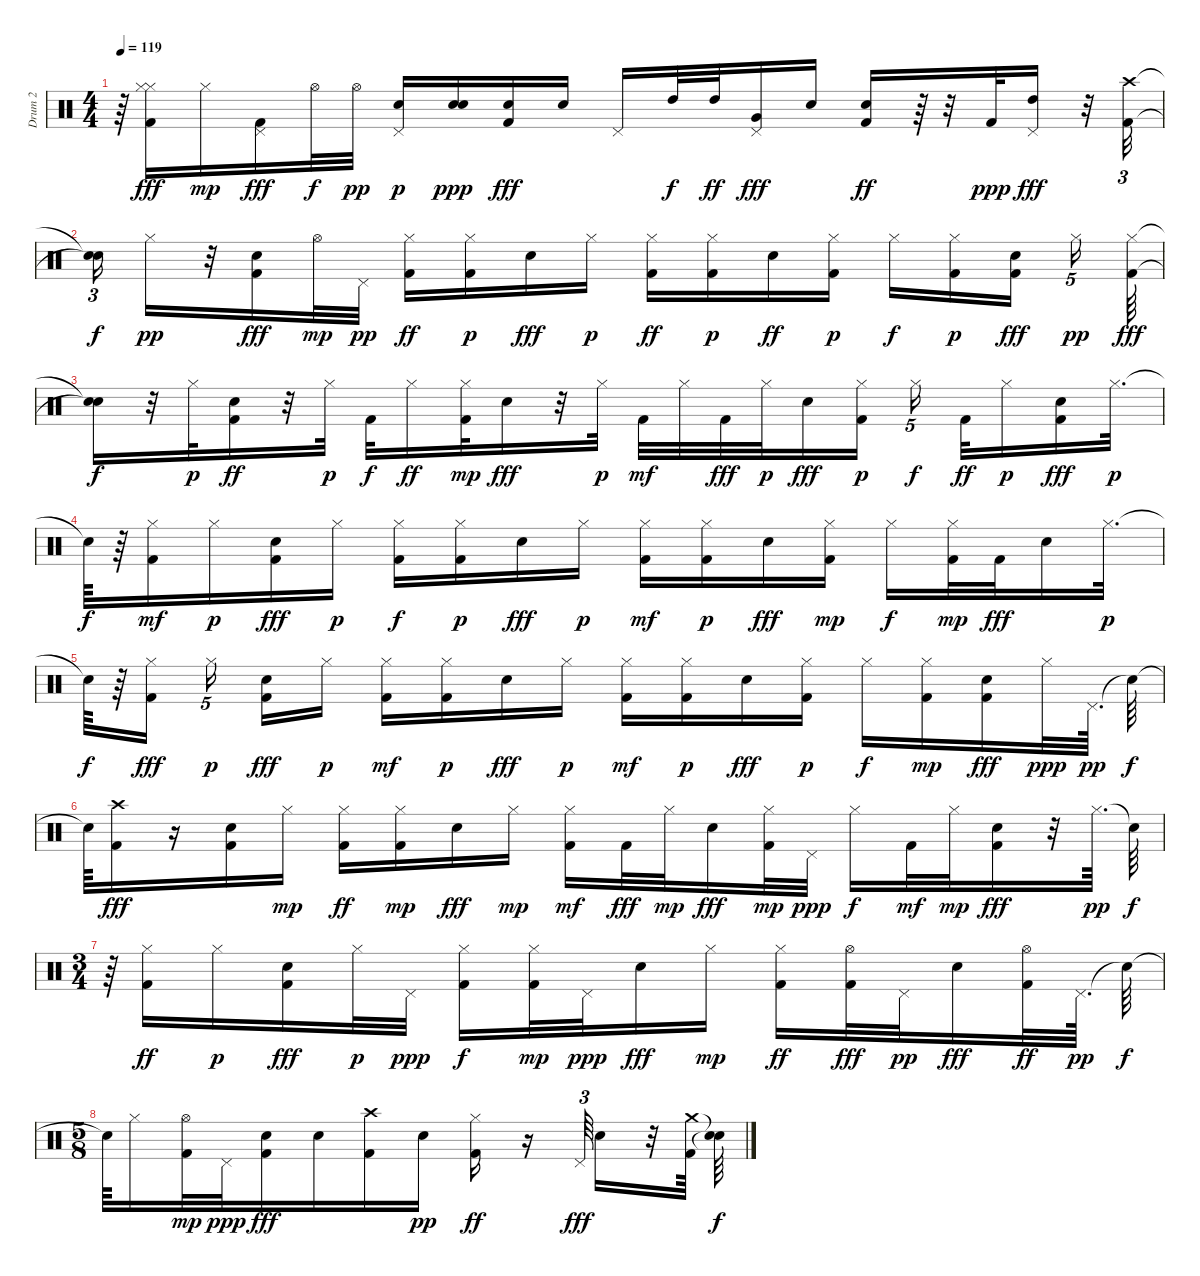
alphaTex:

\track ("Drum 2                          " "Drum 2    ") {instrument percussion}
\staff {score}
\articulation defaults
\ts (4 4)
\tempo 119
\clef neutral
\ks c
r.64{dy ff} ("Hi-Hat (closed)" "Hi-Hat (closed)" "Kick (hit) 2").16{dy fff} "Hi-Hat (closed)".16{dy mp} ("Pedal Hi-Hat (hit)" "Kick (hit) 2").16{dy fff} "Hi-Hat (open)".32{dy f} "Hi-Hat (open)".32{dy pp} ("Pedal Hi-Hat (hit)" "Snare (hit) 2").16{dy p} ("Snare (hit) 2" "Electric Snare (hit)").16{dy ppp} ("Kick (hit) 2" "Snare (hit) 2").16{dy fff} "Snare (hit) 2".16 "Pedal Hi-Hat (hit)".16 "High Tom (hit)".32{dy f} "High Tom (hit)".32{dy ff} ("Pedal Hi-Hat (hit)" "Very Low Tom (hit)").16{dy fff} "Electric Snare (hit)".16 ("Kick (hit) 2" "Electric Snare (hit)").16{dy ff} r.64 r.32 "Kick (hit) 2".32{dy ppp} ("Pedal Hi-Hat (hit)" "High Tom (hit)").16{dy fff} r.32 ("Kick (hit) 2" "Crash high (hit)").32{tu (3 2)} |
("Snare (hit)"{t} "Snare (hit)"{t}).16{tu (3 2) dy f} "Hi-Hat (closed)".16{dy pp} r.32 ("Snare (hit) 2" "Kick (hit) 2").16{dy fff} "Hi-Hat (open)".32{dy mp} "Pedal Hi-Hat (hit)".32{dy pp} ("Kick (hit) 2" "Hi-Hat (closed)").16{dy ff} ("Kick (hit) 2" "Hi-Hat (closed)").16{dy p} "Snare (hit) 2".16{dy fff} "Hi-Hat (closed)".16{dy p} ("Kick (hit) 2" "Hi-Hat (closed)").16{dy ff} ("Kick (hit) 2" "Hi-Hat (closed)").16{dy p} "Snare (hit) 2".16{dy ff} ("Kick (hit) 2" "Hi-Hat (closed)").16{dy p} "Hi-Hat (closed)".16{dy f} ("Kick (hit) 2" "Hi-Hat (closed)").16{dy p} ("Kick (hit) 2" "Snare (hit) 2").16{dy fff beam splitsecondary} "Hi-Hat (closed)".16{tu (5 4) dy pp} ("Kick (hit) 2" "Hi-Hat (closed)").64{dy fff} |
("Snare (hit)"{t} "Snare (hit)"{t}).16{dy f} r.32 "Hi-Hat (closed)".32{dy p} ("Kick (hit) 2" "Snare (hit) 2").16{dy ff} r.32 "Hi-Hat (closed)".32{dy p} "Kick (hit) 2".32{dy f} "Hi-Hat (closed)".16{dy ff} ("Kick (hit) 2" "Hi-Hat (closed)").32{dy mp} "Snare (hit) 2".16{dy fff} r.32 "Hi-Hat (closed)".32{dy p} "Kick (hit) 2".32{dy mf} "Hi-Hat (closed)".32 "Kick (hit) 2".32{dy fff} "Hi-Hat (closed)".32{dy p} "Snare (hit) 2".16{dy fff} ("Kick (hit) 2" "Hi-Hat (closed)").16{dy p} "Hi-Hat (closed)".16{tu (5 4) dy f beam splitsecondary} "Kick (hit) 2".32{dy ff} "Hi-Hat (closed)".16{dy p} ("Kick (hit) 2" "Snare (hit) 2").16{dy fff} "Hi-Hat (closed)".32{d dy p} |
"Snare (hit)"{t}.64{dy f} r.64 ("Kick (hit) 2" "Hi-Hat (closed)").16{dy mf} "Hi-Hat (closed)".16{dy p} ("Kick (hit) 2" "Snare (hit) 2").16{dy fff} "Hi-Hat (closed)".16{dy p} ("Kick (hit) 2" "Hi-Hat (closed)").16{dy f} ("Kick (hit) 2" "Hi-Hat (closed)").16{dy p} "Snare (hit) 2".16{dy fff} "Hi-Hat (closed)".16{dy p} ("Kick (hit) 2" "Hi-Hat (closed)").16{dy mf} ("Kick (hit) 2" "Hi-Hat (closed)").16{dy p} "Snare (hit) 2".16{dy fff} ("Kick (hit) 2" "Hi-Hat (closed)").16{dy mp} "Hi-Hat (closed)".16{dy f} ("Kick (hit) 2" "Hi-Hat (closed)").32{dy mp} "Kick (hit) 2".32{dy fff} "Snare (hit) 2".16 "Hi-Hat (closed)".32{d dy p} |
"Snare (hit)"{t}.64{dy f} r.64 ("Kick (hit) 2" "Hi-Hat (closed)").16{dy fff beam splitsecondary} "Hi-Hat (closed)".16{tu (5 4) dy p beam splitsecondary} ("Kick (hit) 2" "Snare (hit) 2").16{dy fff} "Hi-Hat (closed)".16{dy p} ("Kick (hit) 2" "Hi-Hat (closed)").16{dy mf} ("Kick (hit) 2" "Hi-Hat (closed)").16{dy p} "Snare (hit) 2".16{dy fff} "Hi-Hat (closed)".16{dy p} ("Kick (hit) 2" "Hi-Hat (closed)").16{dy mf} ("Kick (hit) 2" "Hi-Hat (closed)").16{dy p} "Snare (hit) 2".16{dy fff} ("Kick (hit) 2" "Hi-Hat (closed)").16{dy p} "Hi-Hat (closed)".16{dy f} ("Kick (hit) 2" "Hi-Hat (closed)").16{dy mp} ("Kick (hit) 2" "Snare (hit) 2").16{dy fff} "Hi-Hat (closed)".32{dy ppp} "Pedal Hi-Hat (hit)".64{d dy pp} "Snare (hit)"{t}.64{dy f} |
"Snare (hit)"{t}.64 ("Crash high (hit)" "Kick (hit) 2").16{dy fff} r.16 ("Snare (hit) 2" "Kick (hit) 2").16 "Hi-Hat (closed)".16{dy mp} ("Kick (hit) 2" "Hi-Hat (closed)").16{dy ff} ("Kick (hit) 2" "Hi-Hat (closed)").16{dy mp} "Snare (hit) 2".16{dy fff} "Hi-Hat (closed)".16{dy mp} ("Kick (hit) 2" "Hi-Hat (closed)").16{dy mf} "Kick (hit) 2".32{dy fff} "Hi-Hat (closed)".32{dy mp} "Snare (hit) 2".16{dy fff} ("Kick (hit) 2" "Hi-Hat (closed)").32{dy mp} "Pedal Hi-Hat (hit)".32{dy ppp} "Hi-Hat (closed)".16{dy f} "Kick (hit) 2".32{dy mf} "Hi-Hat (closed)".32{dy mp} ("Kick (hit) 2" "Snare (hit) 2").16{dy fff} r.32 "Hi-Hat (closed)".64{d dy pp} "Snare (hit)"{t}.64{dy f} |
\ts (3 4)
r.64 ("Kick (hit) 2" "Hi-Hat (closed)").16{dy ff} "Hi-Hat (closed)".16{dy p} ("Kick (hit) 2" "Snare (hit) 2").16{dy fff} "Hi-Hat (closed)".32{dy p} "Pedal Hi-Hat (hit)".32{dy ppp} ("Kick (hit) 2" "Hi-Hat (closed)").16{dy f} ("Kick (hit) 2" "Hi-Hat (closed)").32{dy mp} "Pedal Hi-Hat (hit)".32{dy ppp} "Snare (hit) 2".16{dy fff} "Hi-Hat (closed)".16{dy mp} ("Kick (hit) 2" "Hi-Hat (closed)").16{dy ff} ("Hi-Hat (open)" "Kick (hit) 2").32{dy fff} "Pedal Hi-Hat (hit)".32{dy pp} "Snare (hit) 2".16{dy fff} ("Hi-Hat (open)" "Kick (hit) 2").32{dy ff} "Pedal Hi-Hat (hit)".64{d dy pp} "Snare (hit)"{t}.64{dy f} |
\ts (5 8)
"Snare (hit)"{t}.64 "Hi-Hat (closed)".16 ("Kick (hit) 2" "Hi-Hat (open)").32{dy mp} "Pedal Hi-Hat (hit)".32{dy ppp} ("Kick (hit) 2" "Snare (hit) 2").16{dy fff} "Electric Snare (hit)".16 ("Kick (hit) 2" "Crash high (hit)").16 "Snare (hit) 2".16{dy pp} ("Kick (hit) 2" "Hi-Hat (closed)").16{dy ff} r.16 "Pedal Hi-Hat (hit)".64{tu (3 2) dy fff} "Snare (hit) 2".16 r.32 ("Crash medium (hit)" "Kick (hit) 2").64 ("Snare (hit)"{t} "Snare (hit)"{t}).64{dy f}
